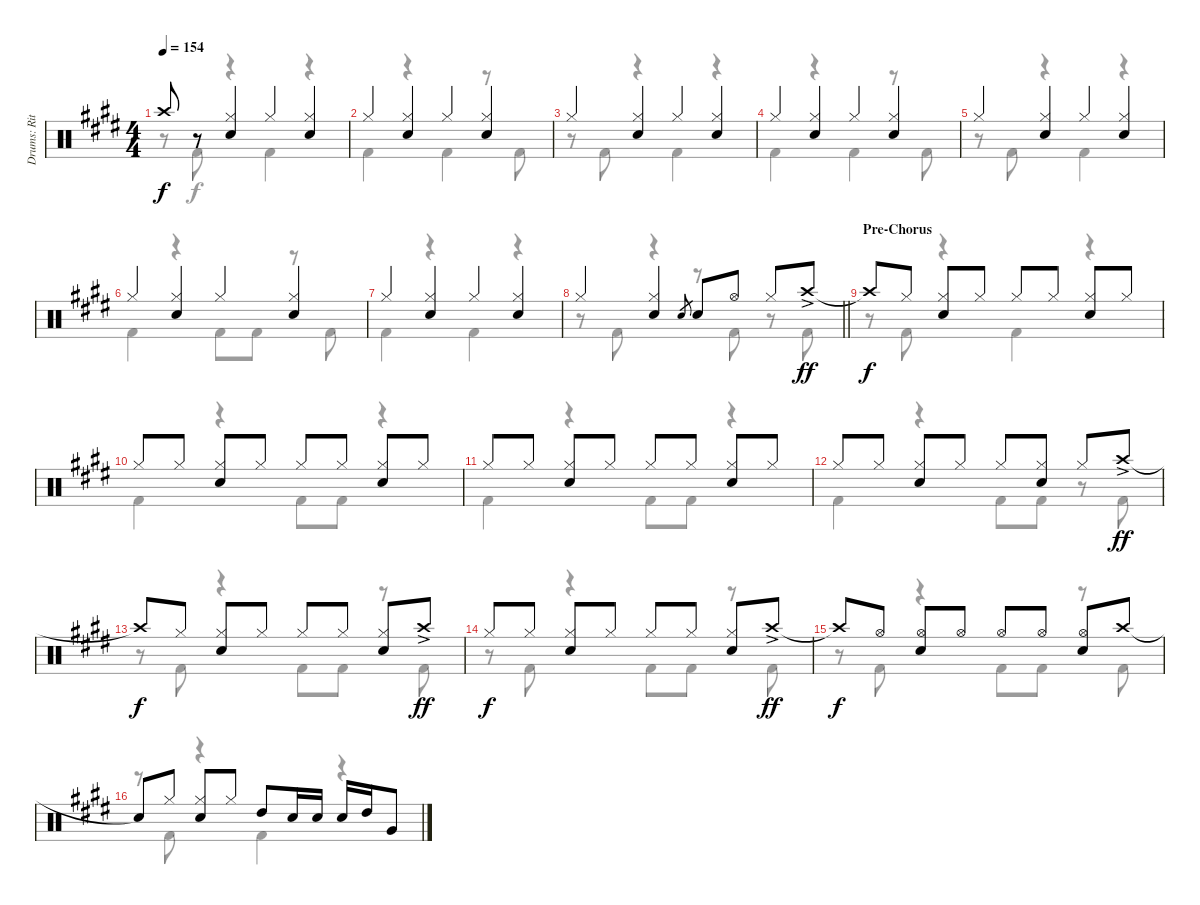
\track ("Drums: Ritsu Tainaka" "Drums: Rit") {instrument percussion}
\staff {score}
\articulation defaults
\voice
\ts (4 4)
\tempo 154
\clef neutral
\ks e "Crash high (hit)"{t}.8{dy f}
r.8 ("Hi-Hat (closed)" "Electric Snare (hit)").4 "Hi-Hat (closed)".4 ("Hi-Hat (closed)" "Electric Snare (hit)").4 |
"Hi-Hat (closed)".4 ("Hi-Hat (closed)" "Electric Snare (hit)").4 "Hi-Hat (closed)".4 ("Hi-Hat (closed)" "Electric Snare (hit)").4 |
"Hi-Hat (closed)".4 ("Hi-Hat (closed)" "Electric Snare (hit)").4 "Hi-Hat (closed)".4 ("Hi-Hat (closed)" "Electric Snare (hit)").4 |
"Hi-Hat (closed)".4 ("Hi-Hat (closed)" "Electric Snare (hit)").4 "Hi-Hat (closed)".4 ("Hi-Hat (closed)" "Electric Snare (hit)").4 |
"Hi-Hat (closed)".4 ("Hi-Hat (closed)" "Electric Snare (hit)").4 "Hi-Hat (closed)".4 ("Hi-Hat (closed)" "Electric Snare (hit)").4 |
"Hi-Hat (closed)".4 ("Hi-Hat (closed)" "Electric Snare (hit)").4 "Hi-Hat (closed)".4 ("Hi-Hat (closed)" "Electric Snare (hit)").4 |
"Hi-Hat (closed)".4 ("Hi-Hat (closed)" "Electric Snare (hit)").4 "Hi-Hat (closed)".4 ("Hi-Hat (closed)" "Electric Snare (hit)").4 |
\barLineRight lightlight "Hi-Hat (closed)".4
("Hi-Hat (closed)" "Electric Snare (hit)").4 "Electric Snare (hit)".8{gr} "Electric Snare (hit)".8 "Hi-Hat (open)".8 "Hi-Hat (closed)".8 "Crash high (hit)"{ac}.8{dy ff} |
\section ("" "Pre-Chorus")
"Crash high (hit)"{t}.8{dy f} "Hi-Hat (closed)".8 ("Hi-Hat (closed)" "Electric Snare (hit)").8 "Hi-Hat (closed)".8 "Hi-Hat (closed)".8 "Hi-Hat (closed)".8 ("Hi-Hat (closed)" "Electric Snare (hit)").8 "Hi-Hat (closed)".8 |
"Hi-Hat (closed)".8 "Hi-Hat (closed)".8 ("Hi-Hat (closed)" "Electric Snare (hit)").8 "Hi-Hat (closed)".8 "Hi-Hat (closed)".8 "Hi-Hat (closed)".8 ("Hi-Hat (closed)" "Electric Snare (hit)").8 "Hi-Hat (closed)".8 |
"Hi-Hat (closed)".8 "Hi-Hat (closed)".8 ("Hi-Hat (closed)" "Electric Snare (hit)").8 "Hi-Hat (closed)".8 "Hi-Hat (closed)".8 "Hi-Hat (closed)".8 ("Hi-Hat (closed)" "Electric Snare (hit)").8 "Hi-Hat (closed)".8 |
"Hi-Hat (closed)".8 "Hi-Hat (closed)".8 ("Hi-Hat (closed)" "Electric Snare (hit)").8 "Hi-Hat (closed)".8 "Hi-Hat (closed)".8 ("Hi-Hat (closed)" "Electric Snare (hit)").8 "Hi-Hat (closed)".8 "Crash high (hit)"{ac}.8{dy ff} |
"Crash high (hit)"{t}.8{dy f} "Hi-Hat (closed)".8 ("Hi-Hat (closed)" "Electric Snare (hit)").8 "Hi-Hat (closed)".8 "Hi-Hat (closed)".8 "Hi-Hat (closed)".8 ("Hi-Hat (closed)" "Electric Snare (hit)").8 "Crash high (hit)"{ac}.8{dy ff} |
"Hi-Hat (closed)".8{dy f} "Hi-Hat (closed)".8 ("Hi-Hat (closed)" "Electric Snare (hit)").8 "Hi-Hat (closed)".8 "Hi-Hat (closed)".8 "Hi-Hat (closed)".8 ("Hi-Hat (closed)" "Electric Snare (hit)").8 "Crash high (hit)"{ac}.8{dy ff} |
"Crash high (hit)"{t}.8{dy f} "Hi-Hat (open)".8 ("Hi-Hat (open)" "Electric Snare (hit)").8 "Hi-Hat (open)".8 "Hi-Hat (open)".8 "Hi-Hat (open)".8 ("Hi-Hat (open)" "Electric Snare (hit)").8 "Crash high (hit)".8 |
"Snare (hit)"{t}.8 "Hi-Hat (closed)".8 ("Hi-Hat (closed)" "Electric Snare (hit)").8 "Hi-Hat (closed)".8 "High Tom (hit)".8 "Electric Snare (hit)".16 "Electric Snare (hit)".16 "Electric Snare (hit)".16 "High Tom (hit)".16 "Very Low Tom (hit)".8
\voice
\clef neutral
\ottava regular
\simile none
\ks e
r.8{dy f} "Kick (hit) 2".8 r.4 "Kick (hit) 2".4 r.4 |
"Kick (hit) 2".4 r.4 "Kick (hit) 2".4 r.8 "Kick (hit) 2".8 |
r.8 "Kick (hit) 2".8 r.4 "Kick (hit) 2".4 r.4 |
"Kick (hit) 2".4 r.4 "Kick (hit) 2".4 r.8 "Kick (hit) 2".8 |
r.8 "Kick (hit) 2".8 r.4 "Kick (hit) 2".4 r.4 |
"Kick (hit) 2".4 r.4 "Kick (hit) 2".8 "Kick (hit) 2".8 r.8 "Kick (hit) 2".8 |
"Kick (hit) 2".4 r.4 "Kick (hit) 2".4 r.4 |
\barLineRight lightlight
r.8 "Kick (hit) 2".8 r.4 r.8 "Kick (hit) 2".8 r.8 "Kick (hit) 2".8 |
r.8 "Kick (hit) 2".8 r.4 "Kick (hit) 2".4 r.4 |
"Kick (hit) 2".4 r.4 "Kick (hit) 2".8 "Kick (hit) 2".8 r.4 |
"Kick (hit) 2".4 r.4 "Kick (hit) 2".8 "Kick (hit) 2".8 r.4 |
"Kick (hit) 2".4 r.4 "Kick (hit) 2".8 "Kick (hit) 2".8 r.8 "Kick (hit) 2".8 |
r.8 "Kick (hit) 2".8 r.4 "Kick (hit) 2".8 "Kick (hit) 2".8 r.8 "Kick (hit) 2".8 |
r.8 "Kick (hit) 2".8 r.4 "Kick (hit) 2".8 "Kick (hit) 2".8 r.8 "Kick (hit) 2".8 |
r.8 "Kick (hit) 2".8 r.4 "Kick (hit) 2".8 "Kick (hit) 2".8 r.8 "Kick (hit) 2".8 |
r.8 "Kick (hit) 2".8 r.4 "Kick (hit) 2".4 r.4
